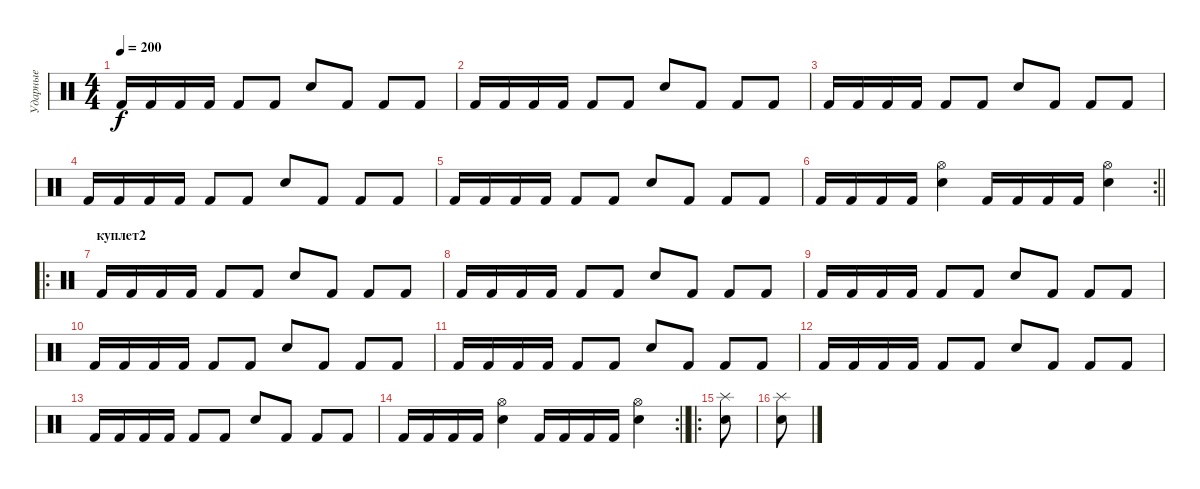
\track ("Ударные" "Ударные") {instrument percussion}
\staff {score}
\articulation defaults
\ts (4 4)
\tempo 200
\clef neutral
\ks c "Kick (hit) 2".16{dy f} "Kick (hit) 2".16 "Kick (hit) 2".16 "Kick (hit) 2".16 "Kick (hit) 2".8 "Kick (hit) 2".8 "Snare (hit) 2".8 "Kick (hit) 2".8 "Kick (hit) 2".8 "Kick (hit) 2".8
|
"Kick (hit) 2".16 "Kick (hit) 2".16 "Kick (hit) 2".16 "Kick (hit) 2".16 "Kick (hit) 2".8 "Kick (hit) 2".8 "Snare (hit) 2".8 "Kick (hit) 2".8 "Kick (hit) 2".8 "Kick (hit) 2".8 |
"Kick (hit) 2".16 "Kick (hit) 2".16 "Kick (hit) 2".16 "Kick (hit) 2".16 "Kick (hit) 2".8 "Kick (hit) 2".8 "Snare (hit) 2".8 "Kick (hit) 2".8 "Kick (hit) 2".8 "Kick (hit) 2".8 |
"Kick (hit) 2".16 "Kick (hit) 2".16 "Kick (hit) 2".16 "Kick (hit) 2".16 "Kick (hit) 2".8 "Kick (hit) 2".8 "Snare (hit) 2".8 "Kick (hit) 2".8 "Kick (hit) 2".8 "Kick (hit) 2".8 |
"Kick (hit) 2".16 "Kick (hit) 2".16 "Kick (hit) 2".16 "Kick (hit) 2".16 "Kick (hit) 2".8 "Kick (hit) 2".8 "Snare (hit) 2".8 "Kick (hit) 2".8 "Kick (hit) 2".8 "Kick (hit) 2".8 |
\rc 2
\barLineRight lightlight "Kick (hit) 2".16 "Kick (hit) 2".16 "Kick (hit) 2".16 "Kick (hit) 2".16
("Hi-Hat (open)" "Snare (hit) 2").4 "Kick (hit) 2".16 "Kick (hit) 2".16 "Kick (hit) 2".16 "Kick (hit) 2".16 ("Hi-Hat (open)" "Snare (hit) 2").4 |
\ro
\section ("" "куплет2")
"Kick (hit) 2".16 "Kick (hit) 2".16 "Kick (hit) 2".16 "Kick (hit) 2".16 "Kick (hit) 2".8 "Kick (hit) 2".8 "Snare (hit) 2".8 "Kick (hit) 2".8 "Kick (hit) 2".8 "Kick (hit) 2".8 |
"Kick (hit) 2".16 "Kick (hit) 2".16 "Kick (hit) 2".16 "Kick (hit) 2".16 "Kick (hit) 2".8 "Kick (hit) 2".8 "Snare (hit) 2".8 "Kick (hit) 2".8 "Kick (hit) 2".8 "Kick (hit) 2".8 |
"Kick (hit) 2".16 "Kick (hit) 2".16 "Kick (hit) 2".16 "Kick (hit) 2".16 "Kick (hit) 2".8 "Kick (hit) 2".8 "Snare (hit) 2".8 "Kick (hit) 2".8 "Kick (hit) 2".8 "Kick (hit) 2".8 |
"Kick (hit) 2".16 "Kick (hit) 2".16 "Kick (hit) 2".16 "Kick (hit) 2".16 "Kick (hit) 2".8 "Kick (hit) 2".8 "Snare (hit) 2".8 "Kick (hit) 2".8 "Kick (hit) 2".8 "Kick (hit) 2".8 |
"Kick (hit) 2".16 "Kick (hit) 2".16 "Kick (hit) 2".16 "Kick (hit) 2".16 "Kick (hit) 2".8 "Kick (hit) 2".8 "Snare (hit) 2".8 "Kick (hit) 2".8 "Kick (hit) 2".8 "Kick (hit) 2".8 |
"Kick (hit) 2".16 "Kick (hit) 2".16 "Kick (hit) 2".16 "Kick (hit) 2".16 "Kick (hit) 2".8 "Kick (hit) 2".8 "Snare (hit) 2".8 "Kick (hit) 2".8 "Kick (hit) 2".8 "Kick (hit) 2".8 |
"Kick (hit) 2".16 "Kick (hit) 2".16 "Kick (hit) 2".16 "Kick (hit) 2".16 "Kick (hit) 2".8 "Kick (hit) 2".8 "Snare (hit) 2".8 "Kick (hit) 2".8 "Kick (hit) 2".8 "Kick (hit) 2".8 |
\rc 2
\barLineRight lightlight "Kick (hit) 2".16 "Kick (hit) 2".16 "Kick (hit) 2".16 "Kick (hit) 2".16
("Hi-Hat (open)" "Snare (hit) 2").4 "Kick (hit) 2".16 "Kick (hit) 2".16 "Kick (hit) 2".16 "Kick (hit) 2".16 ("Hi-Hat (open)" "Snare (hit) 2").4 |
\ro
("Splash (hit)" "Snare (hit) 2").8 |
("Splash (hit)" "Snare (hit) 2").8
